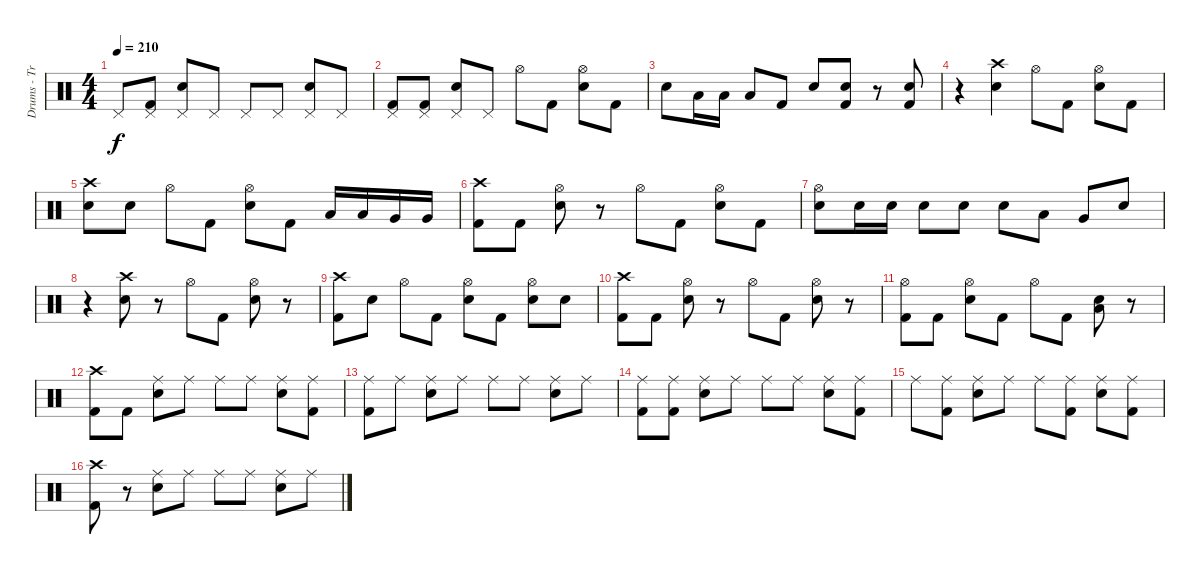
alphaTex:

\track ("Drums - Travis Barker" "Drums - Tr") {instrument percussion}
\staff {score}
\articulation defaults
\ts (4 4)
\tempo 210
\clef neutral
\ks c "Pedal Hi-Hat (hit)".8{dy f}
("Pedal Hi-Hat (hit)" "Kick (hit) 2").8 ("Pedal Hi-Hat (hit)" "Electric Snare (hit)").8 "Pedal Hi-Hat (hit)".8 "Pedal Hi-Hat (hit)".8 "Pedal Hi-Hat (hit)".8 ("Pedal Hi-Hat (hit)" "Electric Snare (hit)").8 "Pedal Hi-Hat (hit)".8 |
("Pedal Hi-Hat (hit)" "Kick (hit) 2").8 ("Pedal Hi-Hat (hit)" "Kick (hit) 2").8 ("Pedal Hi-Hat (hit)" "Electric Snare (hit)").8 "Pedal Hi-Hat (hit)".8 "Hi-Hat (open)".8 "Kick (hit) 2".8 ("Hi-Hat (open)" "Electric Snare (hit)").8 "Kick (hit) 2".8 |
"Electric Snare (hit)".8 "Low Tom (hit)".16 "Low Tom (hit)".16 "Low Tom (hit)".8 "Kick (hit) 2".8 "Electric Snare (hit)".8 ("Snare (hit)"{x} "Kick (hit) 2").8 r.8 ("Snare (hit)"{x} "Kick (hit) 2").8 |
r.4 ("Crash high (hit)" "Electric Snare (hit)").4 "Hi-Hat (open)".8 "Kick (hit) 2".8 ("Hi-Hat (open)" "Electric Snare (hit)").8 "Kick (hit) 2".8 |
("Crash high (hit)" "Electric Snare (hit)").8 "Electric Snare (hit)".8 "Hi-Hat (open)".8 "Kick (hit) 2".8 ("Hi-Hat (open)" "Electric Snare (hit)").8 "Kick (hit) 2".8 "Low Tom (hit)".16 "Low Tom (hit)".16 "Very Low Tom (hit)".16 "Very Low Tom (hit)".16 |
("Crash high (hit)" "Kick (hit) 2").8 "Kick (hit) 2".8 ("Hi-Hat (open)" "Electric Snare (hit)").8 r.8 "Hi-Hat (open)".8 "Kick (hit) 2".8 ("Hi-Hat (open)" "Electric Snare (hit)").8 "Kick (hit) 2".8 |
("Hi-Hat (open)" "Electric Snare (hit)").8 "Electric Snare (hit)".16 "Electric Snare (hit)".16 "Electric Snare (hit)".8 "Electric Snare (hit)".8 "Electric Snare (hit)".8 "Low Tom (hit)".8 "Very Low Tom (hit)".8 "Electric Snare (hit)".8 |
r.4 ("Crash high (hit)" "Electric Snare (hit)").8 r.8 "Hi-Hat (open)".8 "Kick (hit) 2".8 ("Hi-Hat (open)" "Electric Snare (hit)").8 r.8 |
("Crash high (hit)" "Kick (hit) 2").8 "Electric Snare (hit)".8 "Hi-Hat (open)".8 "Kick (hit) 2".8 ("Hi-Hat (open)" "Electric Snare (hit)").8 "Kick (hit) 2".8 ("Hi-Hat (open)" "Electric Snare (hit)").8 "Electric Snare (hit)".8 |
("Crash high (hit)" "Kick (hit) 2").8 "Kick (hit) 2".8 ("Hi-Hat (open)" "Electric Snare (hit)").8 r.8 "Hi-Hat (open)".8 "Kick (hit) 2".8 ("Hi-Hat (open)" "Electric Snare (hit)").8 r.8 |
("Hi-Hat (open)" "Kick (hit) 2").8 "Kick (hit) 2".8 ("Hi-Hat (open)" "Electric Snare (hit)").8 "Kick (hit) 2".8 "Hi-Hat (open)".8 "Kick (hit) 2".8 ("Electric Snare (hit)" "Low Tom (hit)").8 r.8 |
("Crash high (hit)" "Kick (hit) 2").8 "Kick (hit) 2".8 ("Ride (middle)" "Electric Snare (hit)").8 "Ride (middle)".8 "Ride (middle)".8 "Ride (middle)".8 ("Ride (middle)" "Electric Snare (hit)").8 ("Ride (middle)" "Kick (hit) 2").8 |
("Ride (middle)" "Kick (hit) 2").8 "Ride (middle)".8 ("Ride (middle)" "Electric Snare (hit)").8 "Ride (middle)".8 "Ride (middle)".8 "Ride (middle)".8 ("Ride (middle)" "Electric Snare (hit)").8 "Ride (middle)".8 |
("Ride (middle)" "Kick (hit) 2").8 ("Ride (middle)" "Kick (hit) 2").8 ("Ride (middle)" "Electric Snare (hit)").8 "Ride (middle)".8 "Ride (middle)".8 "Ride (middle)".8 ("Ride (middle)" "Electric Snare (hit)").8 ("Ride (middle)" "Kick (hit) 2").8 |
"Ride (middle)".8 ("Ride (middle)" "Kick (hit) 2").8 ("Ride (middle)" "Electric Snare (hit)").8 "Ride (middle)".8 "Ride (middle)".8 ("Ride (middle)" "Kick (hit) 2").8 ("Ride (middle)" "Electric Snare (hit)").8 ("Ride (middle)" "Kick (hit) 2").8 |
("Crash high (hit)" "Kick (hit) 2").8 r.8 ("Ride (middle)" "Electric Snare (hit)").8 "Ride (middle)".8 "Ride (middle)".8 "Ride (middle)".8 ("Ride (middle)" "Electric Snare (hit)").8 "Ride (middle)".8
